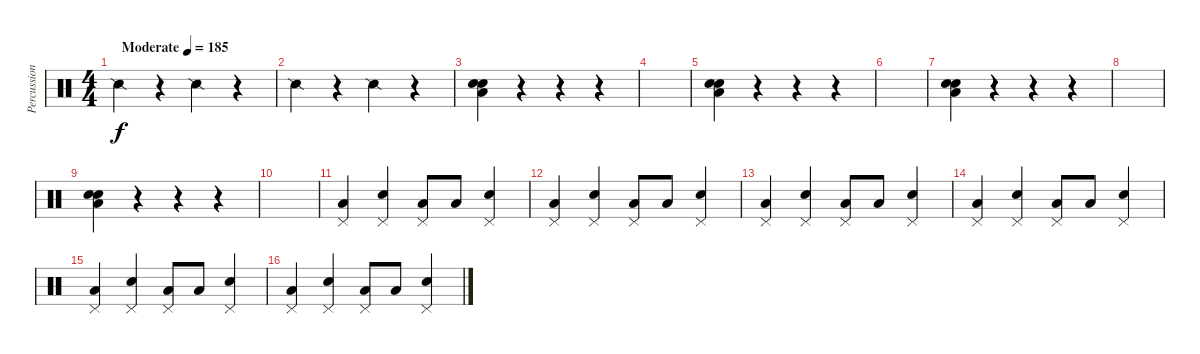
\track ("Percussion" "Percussion") {instrument percussion}
\staff {score}
\articulation defaults
\ts (4 4)
\tempo (185 "Moderate")
\clef neutral
\ks c "Snare (side stick) 2".4{dy f}
r.4 "Snare (side stick) 2".4 r.4 |
"Snare (side stick) 2".4 r.4 "Snare (side stick) 2".4 r.4 |
("Low Tom (hit)" "Electric Snare (hit)" "Snare (hit) 2").4 r.4 r.4 r.4 |
|
("Low Tom (hit)" "Electric Snare (hit)" "Snare (hit) 2").4 r.4 r.4 r.4 |
|
("Low Tom (hit)" "Electric Snare (hit)" "Snare (hit) 2").4 r.4 r.4 r.4 |
|
("Low Tom (hit)" "Electric Snare (hit)" "Snare (hit) 2").4 r.4 r.4 r.4 |
|
("Pedal Hi-Hat (hit)" "Low Tom (hit)").4 ("Pedal Hi-Hat (hit)" "Snare (hit) 2").4 ("Pedal Hi-Hat (hit)" "Low Tom (hit)").8 "Low Tom (hit)".8 ("Pedal Hi-Hat (hit)" "Snare (hit) 2").4 |
("Pedal Hi-Hat (hit)" "Low Tom (hit)").4 ("Pedal Hi-Hat (hit)" "Snare (hit) 2").4 ("Pedal Hi-Hat (hit)" "Low Tom (hit)").8 "Low Tom (hit)".8 ("Pedal Hi-Hat (hit)" "Snare (hit) 2").4 |
("Pedal Hi-Hat (hit)" "Low Tom (hit)").4 ("Pedal Hi-Hat (hit)" "Snare (hit) 2").4 ("Pedal Hi-Hat (hit)" "Low Tom (hit)").8 "Low Tom (hit)".8 ("Pedal Hi-Hat (hit)" "Snare (hit) 2").4 |
("Pedal Hi-Hat (hit)" "Low Tom (hit)").4 ("Pedal Hi-Hat (hit)" "Snare (hit) 2").4 ("Pedal Hi-Hat (hit)" "Low Tom (hit)").8 "Low Tom (hit)".8 ("Pedal Hi-Hat (hit)" "Snare (hit) 2").4 |
("Pedal Hi-Hat (hit)" "Low Tom (hit)").4 ("Pedal Hi-Hat (hit)" "Snare (hit) 2").4 ("Pedal Hi-Hat (hit)" "Low Tom (hit)").8 "Low Tom (hit)".8 ("Pedal Hi-Hat (hit)" "Snare (hit) 2").4 |
("Pedal Hi-Hat (hit)" "Low Tom (hit)").4 ("Pedal Hi-Hat (hit)" "Snare (hit) 2").4 ("Pedal Hi-Hat (hit)" "Low Tom (hit)").8 "Low Tom (hit)".8 ("Pedal Hi-Hat (hit)" "Snare (hit) 2").4
